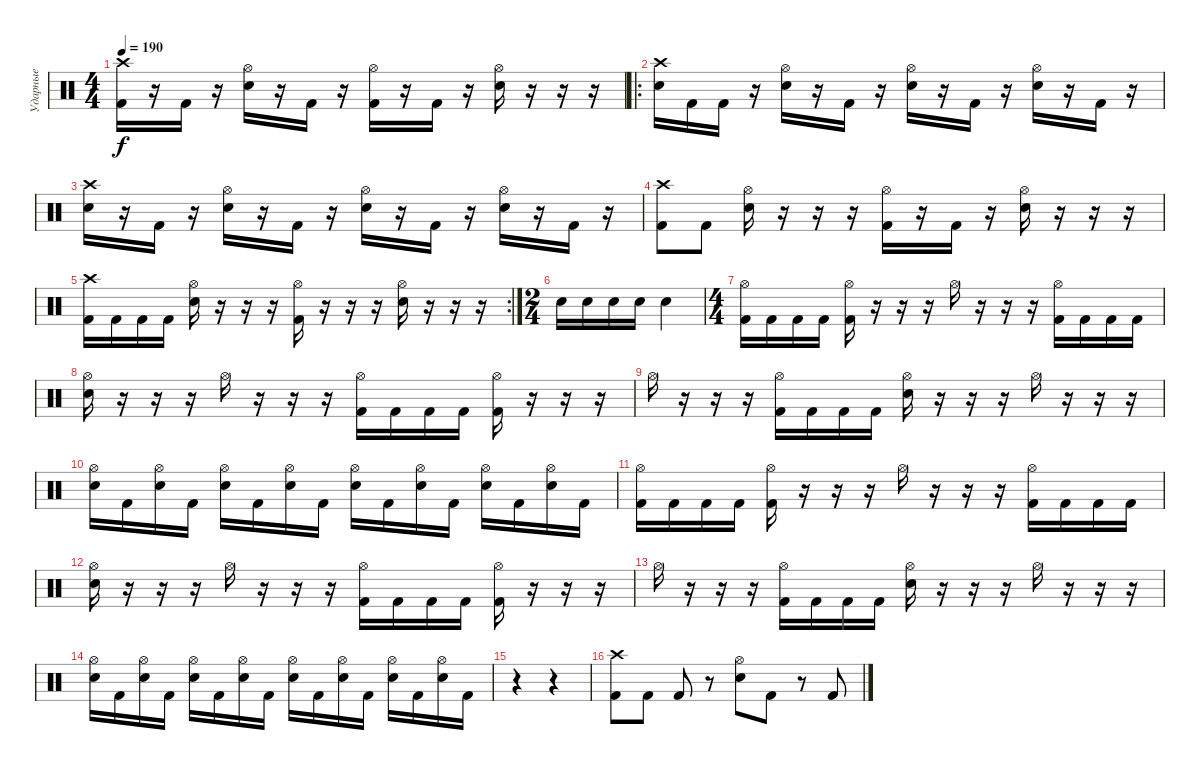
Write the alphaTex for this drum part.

\track ("Ударные" "Ударные") {instrument percussion}
\staff {score}
\articulation defaults
\ts (4 4)
\tempo 190
\clef neutral
\ks c
("Crash high (hit)" "Kick (hit) 2").16{dy f} r.16 "Kick (hit) 2".16 r.16 ("Hi-Hat (open)" "Electric Snare (hit)").16 r.16 "Kick (hit) 2".16 r.16 ("Hi-Hat (open)" "Kick (hit) 2").16 r.16 "Kick (hit) 2".16 r.16 ("Hi-Hat (open)" "Electric Snare (hit)").16 r.16 r.16 r.16 |
\ro
("Crash high (hit)" "Electric Snare (hit)").16 "Kick (hit) 2".16 "Kick (hit) 2".16 r.16 ("Hi-Hat (open)" "Electric Snare (hit)").16 r.16 "Kick (hit) 2".16 r.16 ("Hi-Hat (open)" "Electric Snare (hit)").16 r.16 "Kick (hit) 2".16 r.16 ("Hi-Hat (open)" "Electric Snare (hit)").16 r.16 "Kick (hit) 2".16 r.16 |
("Crash high (hit)" "Electric Snare (hit)").16 r.16 "Kick (hit) 2".16 r.16 ("Hi-Hat (open)" "Electric Snare (hit)").16 r.16 "Kick (hit) 2".16 r.16 ("Hi-Hat (open)" "Electric Snare (hit)").16 r.16 "Kick (hit) 2".16 r.16 ("Hi-Hat (open)" "Electric Snare (hit)").16 r.16 "Kick (hit) 2".16 r.16 |
("Crash high (hit)" "Kick (hit) 2").8 "Kick (hit) 2".8 ("Hi-Hat (open)" "Electric Snare (hit)").16 r.16 r.16 r.16 ("Hi-Hat (open)" "Kick (hit) 2").16 r.16 "Kick (hit) 2".16 r.16 ("Hi-Hat (open)" "Electric Snare (hit)").16 r.16 r.16 r.16 |
\rc 2
("Crash high (hit)" "Kick (hit) 2").16 "Kick (hit) 2".16 "Kick (hit) 2".16 "Kick (hit) 2".16 ("Hi-Hat (open)" "Electric Snare (hit)").16 r.16 r.16 r.16 ("Hi-Hat (open)" "Kick (hit) 2").16 r.16 r.16 r.16 ("Hi-Hat (open)" "Electric Snare (hit)").16 r.16 r.16 r.16 |
\ts (2 4)
"Electric Snare (hit)".16 "Electric Snare (hit)".16 "Electric Snare (hit)".16 "Electric Snare (hit)".16 "Electric Snare (hit)".4 |
\ts (4 4)
("Hi-Hat (open)" "Kick (hit) 2").16 "Kick (hit) 2".16 "Kick (hit) 2".16 "Kick (hit) 2".16 ("Hi-Hat (open)" "Kick (hit) 2").16 r.16 r.16 r.16 "Hi-Hat (open)".16 r.16 r.16 r.16 ("Hi-Hat (open)" "Kick (hit) 2").16 "Kick (hit) 2".16 "Kick (hit) 2".16 "Kick (hit) 2".16 |
("Hi-Hat (open)" "Electric Snare (hit)").16 r.16 r.16 r.16 "Hi-Hat (open)".16 r.16 r.16 r.16 ("Hi-Hat (open)" "Kick (hit) 2").16 "Kick (hit) 2".16 "Kick (hit) 2".16 "Kick (hit) 2".16 ("Hi-Hat (open)" "Kick (hit) 2").16 r.16 r.16 r.16 |
"Hi-Hat (open)".16 r.16 r.16 r.16 ("Hi-Hat (open)" "Kick (hit) 2").16 "Kick (hit) 2".16 "Kick (hit) 2".16 "Kick (hit) 2".16 ("Hi-Hat (open)" "Electric Snare (hit)").16 r.16 r.16 r.16 "Hi-Hat (open)".16 r.16 r.16 r.16 |
("Hi-Hat (open)" "Electric Snare (hit)").16 "Kick (hit) 2".16 ("Hi-Hat (open)" "Electric Snare (hit)").16 "Kick (hit) 2".16 ("Hi-Hat (open)" "Electric Snare (hit)").16 "Kick (hit) 2".16 ("Hi-Hat (open)" "Electric Snare (hit)").16 "Kick (hit) 2".16 ("Hi-Hat (open)" "Electric Snare (hit)").16 "Kick (hit) 2".16 ("Hi-Hat (open)" "Electric Snare (hit)").16 "Kick (hit) 2".16 ("Hi-Hat (open)" "Electric Snare (hit)").16 "Kick (hit) 2".16 ("Hi-Hat (open)" "Electric Snare (hit)").16 "Kick (hit) 2".16 |
("Hi-Hat (open)" "Kick (hit) 2").16 "Kick (hit) 2".16 "Kick (hit) 2".16 "Kick (hit) 2".16 ("Hi-Hat (open)" "Kick (hit) 2").16 r.16 r.16 r.16 "Hi-Hat (open)".16 r.16 r.16 r.16 ("Hi-Hat (open)" "Kick (hit) 2").16 "Kick (hit) 2".16 "Kick (hit) 2".16 "Kick (hit) 2".16 |
("Hi-Hat (open)" "Electric Snare (hit)").16 r.16 r.16 r.16 "Hi-Hat (open)".16 r.16 r.16 r.16 ("Hi-Hat (open)" "Kick (hit) 2").16 "Kick (hit) 2".16 "Kick (hit) 2".16 "Kick (hit) 2".16 ("Hi-Hat (open)" "Kick (hit) 2").16 r.16 r.16 r.16 |
"Hi-Hat (open)".16 r.16 r.16 r.16 ("Hi-Hat (open)" "Kick (hit) 2").16 "Kick (hit) 2".16 "Kick (hit) 2".16 "Kick (hit) 2".16 ("Hi-Hat (open)" "Electric Snare (hit)").16 r.16 r.16 r.16 "Hi-Hat (open)".16 r.16 r.16 r.16 |
("Hi-Hat (open)" "Electric Snare (hit)").16 "Kick (hit) 2".16 ("Hi-Hat (open)" "Electric Snare (hit)").16 "Kick (hit) 2".16 ("Hi-Hat (open)" "Electric Snare (hit)").16 "Kick (hit) 2".16 ("Hi-Hat (open)" "Electric Snare (hit)").16 "Kick (hit) 2".16 ("Hi-Hat (open)" "Electric Snare (hit)").16 "Kick (hit) 2".16 ("Hi-Hat (open)" "Electric Snare (hit)").16 "Kick (hit) 2".16 ("Hi-Hat (open)" "Electric Snare (hit)").16 "Kick (hit) 2".16 ("Hi-Hat (open)" "Electric Snare (hit)").16 "Kick (hit) 2".16 |
r.4 r.4 |
("Crash high (hit)" "Kick (hit) 2").8 "Kick (hit) 2".8 "Kick (hit) 2".8 r.8 ("Hi-Hat (open)" "Electric Snare (hit)").8 "Kick (hit) 2".8 r.8 "Kick (hit) 2".8
